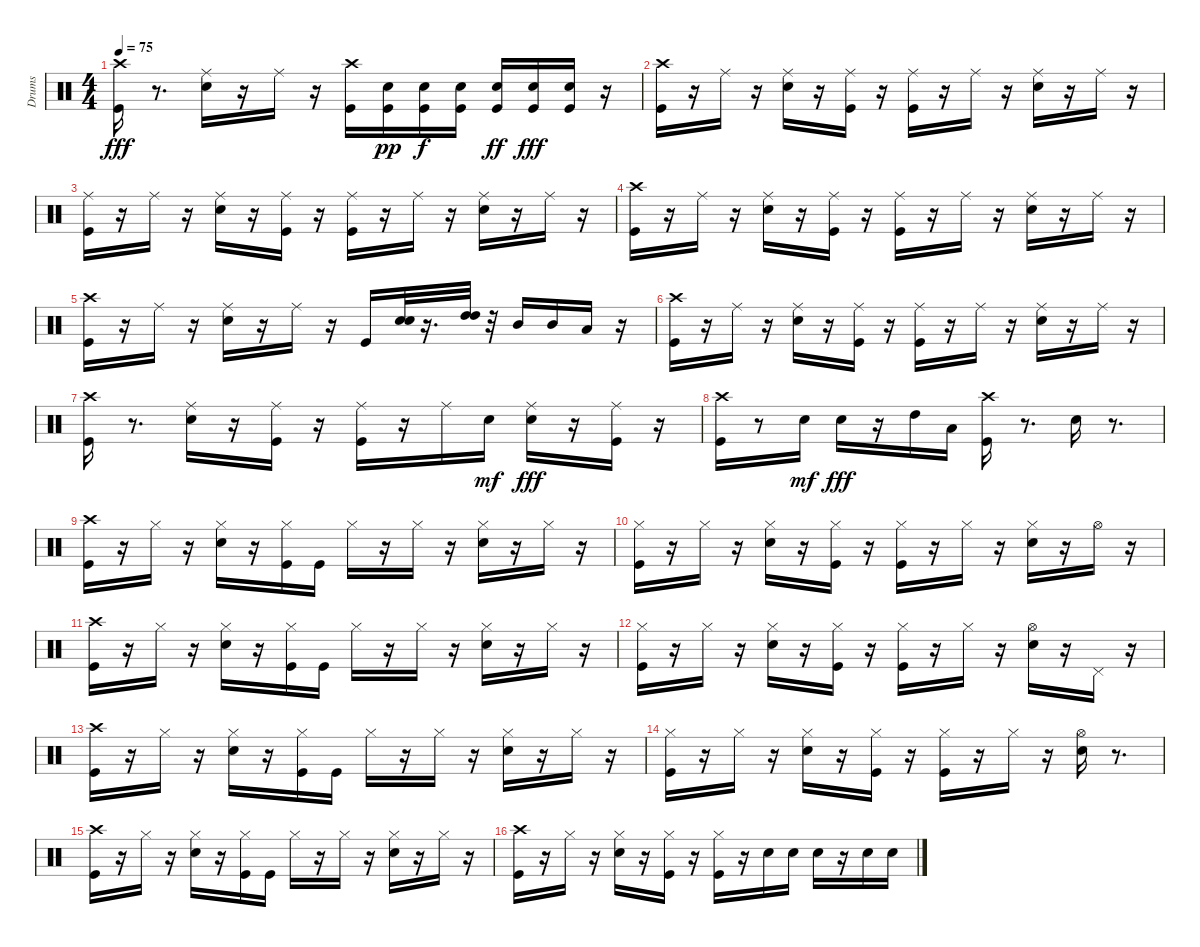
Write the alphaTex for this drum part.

\track ("Drums" "Drums") {instrument percussion}
\staff {score}
\articulation defaults
\ts (4 4)
\tempo 75
\clef neutral
\ks c
("Kick (hit)" "Crash high (hit)").16{dy fff} r.8{d} ("Snare (hit) 2" "Ride (middle)").16 r.16 "Ride (middle)".16 r.16 ("Crash high (hit)" "Kick (hit)").16 ("Snare (hit) 2" "Kick (hit)").16{dy pp} ("Snare (hit) 2" "Kick (hit)").16{dy f} ("Snare (hit) 2" "Kick (hit)").16 ("Snare (hit) 2" "Kick (hit)").16{dy ff} ("Snare (hit) 2" "Kick (hit)").16{dy fff} ("Snare (hit) 2" "Kick (hit)").16 r.16 |
("Kick (hit)" "Crash high (hit)").16 r.16 "Ride (middle)".16 r.16 ("Snare (hit) 2" "Ride (middle)").16 r.16 ("Kick (hit)" "Ride (middle)").16 r.16 ("Kick (hit)" "Ride (middle)").16 r.16 "Ride (middle)".16 r.16 ("Snare (hit) 2" "Ride (middle)").16 r.16 "Ride (middle)".16 r.16 |
("Kick (hit)" "Ride (middle)").16 r.16 "Ride (middle)".16 r.16 ("Ride (middle)" "Snare (hit) 2").16 r.16 ("Ride (middle)" "Kick (hit)").16 r.16 ("Ride (middle)" "Kick (hit)").16 r.16 "Ride (middle)".16 r.16 ("Ride (middle)" "Snare (hit) 2").16 r.16 "Ride (middle)".16 r.16 |
("Crash high (hit)" "Kick (hit)").16 r.16 "Ride (middle)".16 r.16 ("Ride (middle)" "Snare (hit) 2").16 r.16 ("Ride (middle)" "Kick (hit)").16 r.16 ("Ride (middle)" "Kick (hit)").16 r.16 "Ride (middle)".16 r.16 ("Ride (middle)" "Snare (hit) 2").16 r.16 "Ride (middle)".16 r.16 |
("Kick (hit)" "Crash high (hit)").16 r.16 "Ride (middle)".16 r.16 ("Ride (middle)" "Snare (hit) 2").16 r.16 "Ride (middle)".16 r.16 "Kick (hit)".16 ("Snare (hit) 2" "Snare (hit) 2").32 r.16{d} ("High Tom (hit)" "High Tom (hit)").32 r.32 "Mid Tom (hit)".16 "Mid Tom (hit)".16 "Low Tom (hit)".16 r.16 |
("Kick (hit)" "Crash high (hit)").16 r.16 "Ride (middle)".16 r.16 ("Snare (hit) 2" "Ride (middle)").16 r.16 ("Kick (hit)" "Ride (middle)").16 r.16 ("Kick (hit)" "Ride (middle)").16 r.16 "Ride (middle)".16 r.16 ("Snare (hit) 2" "Ride (middle)").16 r.16 "Ride (middle)".16 r.16 |
("Crash high (hit)" "Kick (hit)").16 r.8{d} ("Ride (middle)" "Snare (hit) 2").16 r.16 ("Ride (middle)" "Kick (hit)").16 r.16 ("Ride (middle)" "Kick (hit)").16 r.16 "Ride (middle)".16 "Snare (hit) 2".16{dy mf} ("Ride (middle)" "Snare (hit) 2").16{dy fff} r.16 ("Kick (hit)" "Ride (middle)").16 r.16 |
("Kick (hit)" "Crash high (hit)").16 r.8 "Snare (hit) 2".16{dy mf} "Snare (hit) 2".16{dy fff} r.16 "High Tom (hit)".16 "Low Tom (hit)".16 ("Crash high (hit)" "Kick (hit)").16 r.8{d} "Snare (hit) 2".16 r.8{d} |
("Kick (hit)" "Crash high (hit)").16 r.16 "Hi-Hat (closed)".16 r.16 ("Hi-Hat (closed)" "Snare (hit) 2").16 r.16 ("Hi-Hat (closed)" "Kick (hit)").16 "Kick (hit)".16 "Hi-Hat (closed)".16 r.16 "Hi-Hat (closed)".16 r.16 ("Hi-Hat (closed)" "Snare (hit) 2").16 r.16 "Hi-Hat (closed)".16 r.16 |
("Kick (hit)" "Hi-Hat (closed)").16 r.16 "Hi-Hat (closed)".16 r.16 ("Snare (hit) 2" "Hi-Hat (closed)").16 r.16 ("Kick (hit)" "Hi-Hat (closed)").16 r.16 ("Hi-Hat (closed)" "Kick (hit)").16 r.16 "Hi-Hat (closed)".16 r.16 ("Snare (hit) 2" "Hi-Hat (closed)").16 r.16 "Hi-Hat (open)".16 r.16 |
("Crash high (hit)" "Kick (hit)").16 r.16 "Hi-Hat (closed)".16 r.16 ("Snare (hit) 2" "Hi-Hat (closed)").16 r.16 ("Kick (hit)" "Hi-Hat (closed)").16 "Kick (hit)".16 "Hi-Hat (closed)".16 r.16 "Hi-Hat (closed)".16 r.16 ("Snare (hit) 2" "Hi-Hat (closed)").16 r.16 "Hi-Hat (closed)".16 r.16 |
("Hi-Hat (closed)" "Kick (hit)").16 r.16 "Hi-Hat (closed)".16 r.16 ("Hi-Hat (closed)" "Snare (hit) 2").16 r.16 ("Hi-Hat (closed)" "Kick (hit)").16 r.16 ("Kick (hit)" "Hi-Hat (closed)").16 r.16 "Hi-Hat (closed)".16 r.16 ("Hi-Hat (open)" "Snare (hit) 2").16 r.16 "Pedal Hi-Hat (hit)".16 r.16 |
("Kick (hit)" "Crash high (hit)").16 r.16 "Hi-Hat (closed)".16 r.16 ("Hi-Hat (closed)" "Snare (hit) 2").16 r.16 ("Hi-Hat (closed)" "Kick (hit)").16 "Kick (hit)".16 "Hi-Hat (closed)".16 r.16 "Hi-Hat (closed)".16 r.16 ("Hi-Hat (closed)" "Snare (hit) 2").16 r.16 "Hi-Hat (closed)".16 r.16 |
("Kick (hit)" "Hi-Hat (closed)").16 r.16 "Hi-Hat (closed)".16 r.16 ("Snare (hit) 2" "Hi-Hat (closed)").16 r.16 ("Kick (hit)" "Hi-Hat (closed)").16 r.16 ("Hi-Hat (closed)" "Kick (hit)").16 r.16 "Hi-Hat (closed)".16 r.16 ("Hi-Hat (open)" "Snare (hit) 2").16 r.8{d} |
("Kick (hit)" "Crash high (hit)").16 r.16 "Hi-Hat (closed)".16 r.16 ("Hi-Hat (closed)" "Snare (hit) 2").16 r.16 ("Hi-Hat (closed)" "Kick (hit)").16 "Kick (hit)".16 "Hi-Hat (closed)".16 r.16 "Hi-Hat (closed)".16 r.16 ("Hi-Hat (closed)" "Snare (hit) 2").16 r.16 "Hi-Hat (closed)".16 r.16 |
("Kick (hit)" "Crash high (hit)").16 r.16 "Hi-Hat (closed)".16 r.16 ("Snare (hit) 2" "Hi-Hat (closed)").16 r.16 ("Kick (hit)" "Hi-Hat (closed)").16 r.16 ("Hi-Hat (closed)" "Kick (hit)").16 r.16 "Snare (hit) 2".16 "Snare (hit) 2".16 "Snare (hit) 2".16 r.16 "Snare (hit) 2".16 "Snare (hit) 2".16
